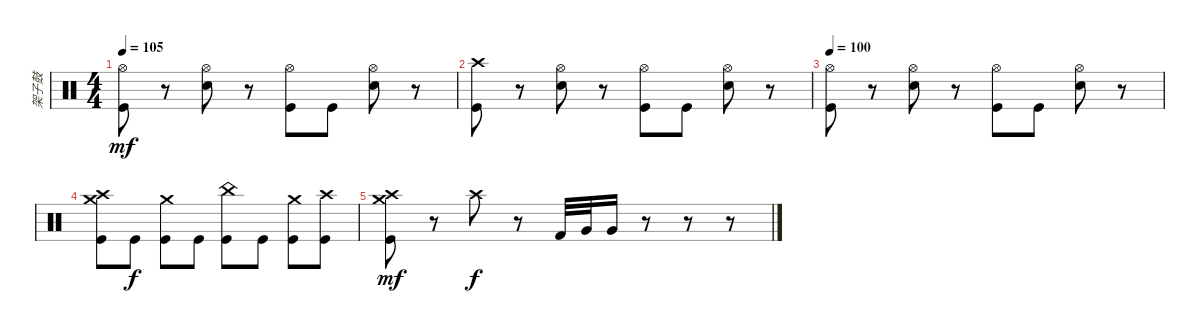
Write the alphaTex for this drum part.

\track ("架子鼓" "架子鼓") {instrument percussion}
\staff {score}
\articulation defaults
\ts (4 4)
\tempo 105
\clef neutral
\ks c
("Hi-Hat (open)" "Kick (hit)").8{dy mf} r.8 ("Hi-Hat (open)" "Snare (hit) 2").8 r.8 ("Hi-Hat (open)" "Kick (hit)").8 "Kick (hit)".8 ("Hi-Hat (open)" "Snare (hit) 2").8 r.8 |
("Crash high (hit)" "Kick (hit)").8 r.8 ("Hi-Hat (open)" "Snare (hit) 2").8 r.8 ("Hi-Hat (open)" "Kick (hit)").8 "Kick (hit)".8 ("Hi-Hat (open)" "Snare (hit) 2").8 r.8 |
\tempo 100
("Hi-Hat (open)" "Kick (hit)").8 r.8 ("Hi-Hat (open)" "Snare (hit) 2").8 r.8 ("Hi-Hat (open)" "Kick (hit)").8 "Kick (hit)".8 ("Hi-Hat (open)" "Snare (hit) 2").8 r.8 |
("Crash high (hit)" "Crash medium (hit)" "Kick (hit)").8 "Kick (hit)".8{dy f} ("Crash medium (hit)" "Kick (hit)").8 "Kick (hit)".8 ("China (hit)" "Kick (hit)").8 "Kick (hit)".8 ("Crash medium (hit)" "Kick (hit)").8 ("Crash high (hit)" "Kick (hit)").8 |
("Crash high (hit)" "Crash medium (hit)" "Kick (hit)").8{dy mf} r.8 "Crash high (hit)".8{dy f} r.8 "Kick (hit) 2".32 "Very Low Tom (hit)".32 "Very Low Tom (hit)".16 r.8 r.8 r.8
